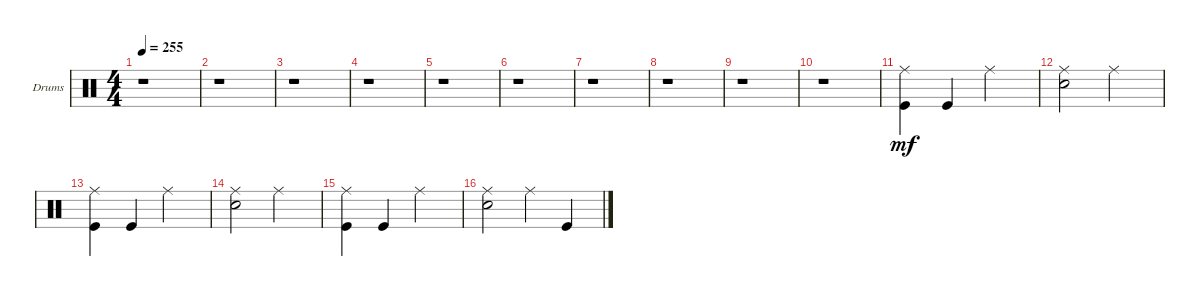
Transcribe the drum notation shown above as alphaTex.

\bracketExtendMode groupsimilarinstruments
\firstSystemTrackNameOrientation horizontal
\otherSystemsTrackNameOrientation horizontal
\track ("Drums" "Drums") {instrument percussion}
\staff {score}
\articulation defaults
\ts (4 4)
\tempo 255
\clef neutral
\ks c
r.1{dy mf} |
r.1 |
r.1 |
r.1 |
r.1 |
r.1 |
r.1 |
r.1 |
r.1 |
r.1 |
("Kick (hit)" "Ride (middle)").4 "Kick (hit)".4 "Ride (middle)".2 |
("Snare (hit) 2" "Ride (middle)").2 "Ride (middle)".2 |
("Kick (hit)" "Ride (middle)").4 "Kick (hit)".4 "Ride (middle)".2 |
("Snare (hit) 2" "Ride (middle)").2 "Ride (middle)".2 |
("Kick (hit)" "Ride (middle)").4 "Kick (hit)".4 "Ride (middle)".2 |
("Snare (hit) 2" "Ride (middle)").2 "Ride (middle)".4 "Kick (hit)".4
